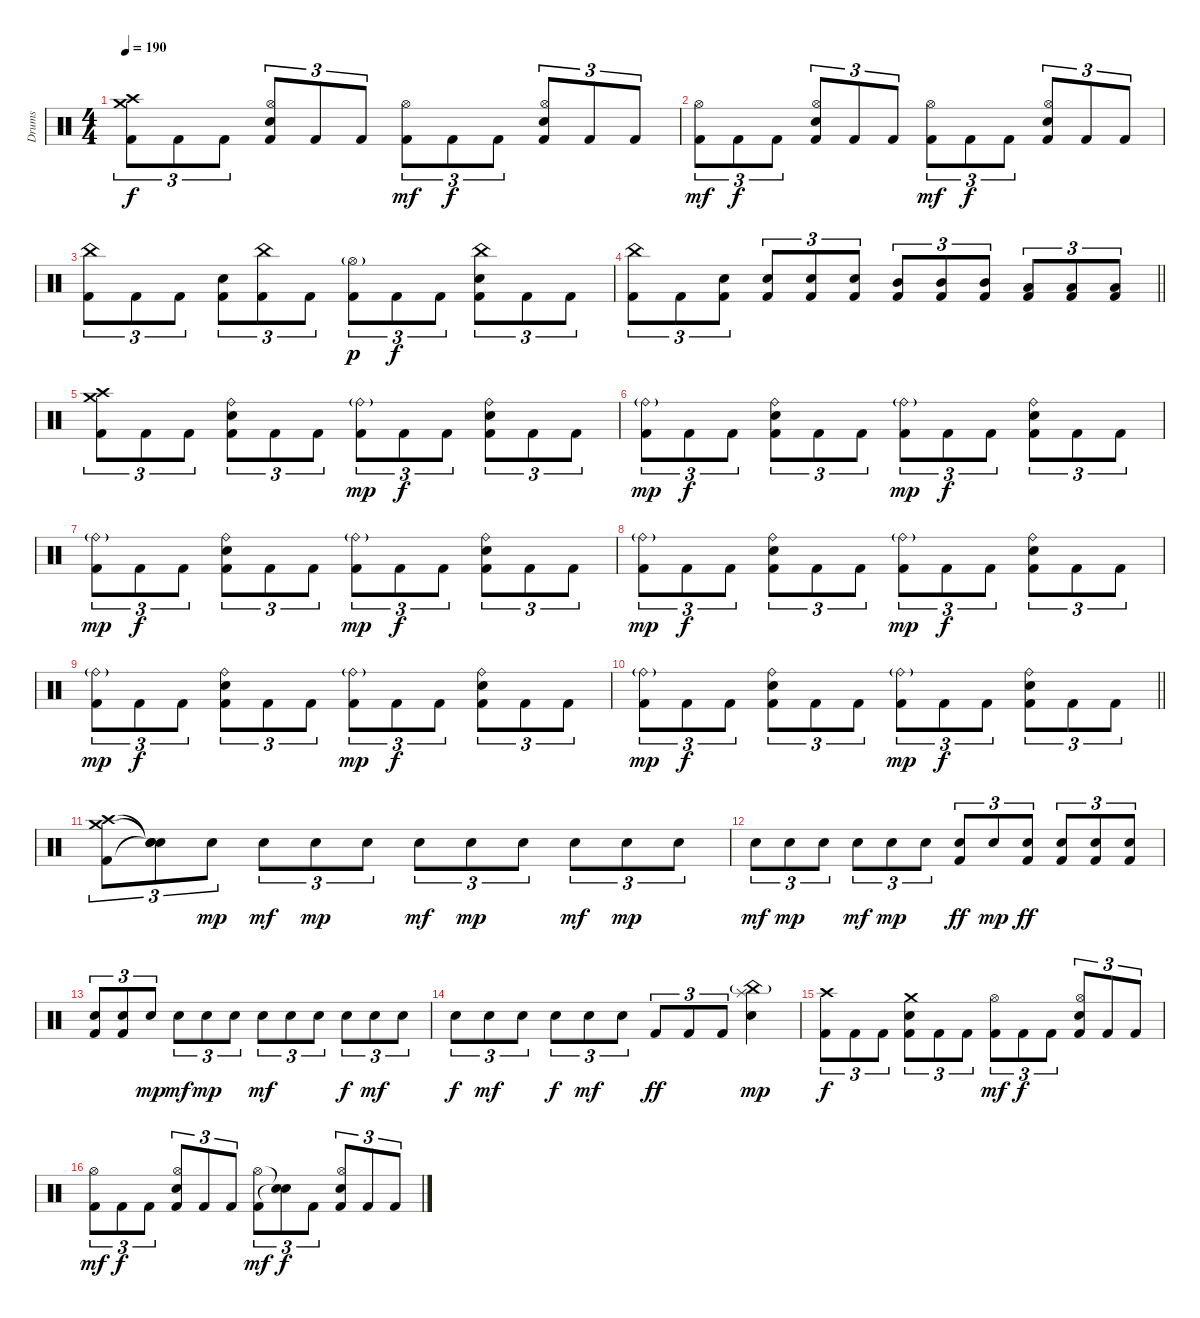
\track ("Drums" "Drums") {instrument percussion}
\staff {score}
\articulation defaults
\ts (4 4)
\tempo 190
\clef neutral
\ks c
("Crash high (hit)" "Crash medium (hit)" "Kick (hit) 2").8{tu (3 2) dy f} "Kick (hit) 2".8{tu (3 2)} "Kick (hit) 2".8{tu (3 2)} ("Hi-Hat (open)" "Electric Snare (hit)" "Kick (hit) 2").8{tu (3 2)} "Kick (hit) 2".8{tu (3 2)} "Kick (hit) 2".8{tu (3 2)} ("Hi-Hat (open)" "Kick (hit) 2").8{tu (3 2) dy mf} "Kick (hit) 2".8{tu (3 2) dy f} "Kick (hit) 2".8{tu (3 2)} ("Hi-Hat (open)" "Electric Snare (hit)" "Kick (hit) 2").8{tu (3 2)} "Kick (hit) 2".8{tu (3 2)} "Kick (hit) 2".8{tu (3 2)} |
("Hi-Hat (open)" "Kick (hit) 2").8{tu (3 2) dy mf} "Kick (hit) 2".8{tu (3 2) dy f} "Kick (hit) 2".8{tu (3 2)} ("Hi-Hat (open)" "Electric Snare (hit)" "Kick (hit) 2").8{tu (3 2)} "Kick (hit) 2".8{tu (3 2)} "Kick (hit) 2".8{tu (3 2)} ("Hi-Hat (open)" "Kick (hit) 2").8{tu (3 2) dy mf} "Kick (hit) 2".8{tu (3 2) dy f} "Kick (hit) 2".8{tu (3 2)} ("Hi-Hat (open)" "Electric Snare (hit)" "Kick (hit) 2").8{tu (3 2)} "Kick (hit) 2".8{tu (3 2)} "Kick (hit) 2".8{tu (3 2)} |
("China (hit)" "Kick (hit) 2").8{tu (3 2)} "Kick (hit) 2".8{tu (3 2)} "Kick (hit) 2".8{tu (3 2)} ("Electric Snare (hit)" "Kick (hit) 2").8{tu (3 2)} ("China (hit)" "Kick (hit) 2").8{tu (3 2)} "Kick (hit) 2".8{tu (3 2)} ("Hi-Hat (open)"{g} "Kick (hit) 2").8{tu (3 2) dy p} "Kick (hit) 2".8{tu (3 2) dy f} "Kick (hit) 2".8{tu (3 2)} ("China (hit)" "Electric Snare (hit)" "Kick (hit) 2").8{tu (3 2)} "Kick (hit) 2".8{tu (3 2)} "Kick (hit) 2".8{tu (3 2)} |
\barLineRight lightlight
("China (hit)" "Kick (hit) 2").8{tu (3 2)} "Kick (hit) 2".8{tu (3 2)} ("Electric Snare (hit)" "Kick (hit) 2").8{tu (3 2)} ("Electric Snare (hit)" "Kick (hit) 2").8{tu (3 2)} ("Electric Snare (hit)" "Kick (hit) 2").8{tu (3 2)} ("Electric Snare (hit)" "Kick (hit) 2").8{tu (3 2)} ("Mid Tom (hit)" "Kick (hit) 2").8{tu (3 2)} ("Mid Tom (hit)" "Kick (hit) 2").8{tu (3 2)} ("Mid Tom (hit)" "Kick (hit) 2").8{tu (3 2)} ("Low Tom (hit)" "Kick (hit) 2").8{tu (3 2)} ("Low Tom (hit)" "Kick (hit) 2").8{tu (3 2)} ("Low Tom (hit)" "Kick (hit) 2").8{tu (3 2)} |
("Crash high (hit)" "Crash medium (hit)" "Kick (hit) 2").8{tu (3 2)} "Kick (hit) 2".8{tu (3 2)} "Kick (hit) 2".8{tu (3 2)} ("Ride (bell)" "Electric Snare (hit)" "Kick (hit) 2").8{tu (3 2)} "Kick (hit) 2".8{tu (3 2)} "Kick (hit) 2".8{tu (3 2)} ("Ride (bell)"{g} "Kick (hit) 2").8{tu (3 2) dy mp} "Kick (hit) 2".8{tu (3 2) dy f} "Kick (hit) 2".8{tu (3 2)} ("Ride (bell)" "Electric Snare (hit)" "Kick (hit) 2").8{tu (3 2)} "Kick (hit) 2".8{tu (3 2)} "Kick (hit) 2".8{tu (3 2)} |
("Ride (bell)"{g} "Kick (hit) 2").8{tu (3 2) dy mp} "Kick (hit) 2".8{tu (3 2) dy f} "Kick (hit) 2".8{tu (3 2)} ("Ride (bell)" "Electric Snare (hit)" "Kick (hit) 2").8{tu (3 2)} "Kick (hit) 2".8{tu (3 2)} "Kick (hit) 2".8{tu (3 2)} ("Ride (bell)"{g} "Kick (hit) 2").8{tu (3 2) dy mp} "Kick (hit) 2".8{tu (3 2) dy f} "Kick (hit) 2".8{tu (3 2)} ("Ride (bell)" "Electric Snare (hit)" "Kick (hit) 2").8{tu (3 2)} "Kick (hit) 2".8{tu (3 2)} "Kick (hit) 2".8{tu (3 2)} |
("Ride (bell)"{g} "Kick (hit) 2").8{tu (3 2) dy mp} "Kick (hit) 2".8{tu (3 2) dy f} "Kick (hit) 2".8{tu (3 2)} ("Ride (bell)" "Electric Snare (hit)" "Kick (hit) 2").8{tu (3 2)} "Kick (hit) 2".8{tu (3 2)} "Kick (hit) 2".8{tu (3 2)} ("Ride (bell)"{g} "Kick (hit) 2").8{tu (3 2) dy mp} "Kick (hit) 2".8{tu (3 2) dy f} "Kick (hit) 2".8{tu (3 2)} ("Ride (bell)" "Electric Snare (hit)" "Kick (hit) 2").8{tu (3 2)} "Kick (hit) 2".8{tu (3 2)} "Kick (hit) 2".8{tu (3 2)} |
("Ride (bell)"{g} "Kick (hit) 2").8{tu (3 2) dy mp} "Kick (hit) 2".8{tu (3 2) dy f} "Kick (hit) 2".8{tu (3 2)} ("Ride (bell)" "Electric Snare (hit)" "Kick (hit) 2").8{tu (3 2)} "Kick (hit) 2".8{tu (3 2)} "Kick (hit) 2".8{tu (3 2)} ("Ride (bell)"{g} "Kick (hit) 2").8{tu (3 2) dy mp} "Kick (hit) 2".8{tu (3 2) dy f} "Kick (hit) 2".8{tu (3 2)} ("Ride (bell)" "Electric Snare (hit)" "Kick (hit) 2").8{tu (3 2)} "Kick (hit) 2".8{tu (3 2)} "Kick (hit) 2".8{tu (3 2)} |
("Ride (bell)"{g} "Kick (hit) 2").8{tu (3 2) dy mp} "Kick (hit) 2".8{tu (3 2) dy f} "Kick (hit) 2".8{tu (3 2)} ("Ride (bell)" "Electric Snare (hit)" "Kick (hit) 2").8{tu (3 2)} "Kick (hit) 2".8{tu (3 2)} "Kick (hit) 2".8{tu (3 2)} ("Ride (bell)"{g} "Kick (hit) 2").8{tu (3 2) dy mp} "Kick (hit) 2".8{tu (3 2) dy f} "Kick (hit) 2".8{tu (3 2)} ("Ride (bell)" "Electric Snare (hit)" "Kick (hit) 2").8{tu (3 2)} "Kick (hit) 2".8{tu (3 2)} "Kick (hit) 2".8{tu (3 2)} |
\barLineRight lightlight
("Ride (bell)"{g} "Kick (hit) 2").8{tu (3 2) dy mp} "Kick (hit) 2".8{tu (3 2) dy f} "Kick (hit) 2".8{tu (3 2)} ("Ride (bell)" "Electric Snare (hit)" "Kick (hit) 2").8{tu (3 2)} "Kick (hit) 2".8{tu (3 2)} "Kick (hit) 2".8{tu (3 2)} ("Ride (bell)"{g} "Kick (hit) 2").8{tu (3 2) dy mp} "Kick (hit) 2".8{tu (3 2) dy f} "Kick (hit) 2".8{tu (3 2)} ("Ride (bell)" "Electric Snare (hit)" "Kick (hit) 2").8{tu (3 2)} "Kick (hit) 2".8{tu (3 2)} "Kick (hit) 2".8{tu (3 2)} |
("Crash high (hit)" "Crash medium (hit)" "Kick (hit) 2").8{tu (3 2)} ("Snare (hit)"{t} "Snare (hit)"{t} "Snare (hit)"{t}).8{tu (3 2)} "Electric Snare (hit)".8{tu (3 2) dy mp} "Electric Snare (hit)".8{tu (3 2) dy mf} "Electric Snare (hit)".8{tu (3 2) dy mp} "Electric Snare (hit)".8{tu (3 2)} "Electric Snare (hit)".8{tu (3 2) dy mf} "Electric Snare (hit)".8{tu (3 2) dy mp} "Electric Snare (hit)".8{tu (3 2)} "Electric Snare (hit)".8{tu (3 2) dy mf} "Electric Snare (hit)".8{tu (3 2) dy mp} "Electric Snare (hit)".8{tu (3 2)} |
"Electric Snare (hit)".8{tu (3 2) dy mf} "Electric Snare (hit)".8{tu (3 2) dy mp} "Electric Snare (hit)".8{tu (3 2)} "Electric Snare (hit)".8{tu (3 2) dy mf} "Electric Snare (hit)".8{tu (3 2) dy mp} "Electric Snare (hit)".8{tu (3 2)} ("Electric Snare (hit)" "Kick (hit) 2").8{tu (3 2) dy ff} "Electric Snare (hit)".8{tu (3 2) dy mp} ("Electric Snare (hit)" "Kick (hit) 2").8{tu (3 2) dy ff} ("Electric Snare (hit)" "Kick (hit) 2").8{tu (3 2)} ("Electric Snare (hit)" "Kick (hit) 2").8{tu (3 2)} ("Electric Snare (hit)" "Kick (hit) 2").8{tu (3 2)} |
("Electric Snare (hit)" "Kick (hit) 2").8{tu (3 2)} ("Electric Snare (hit)" "Kick (hit) 2").8{tu (3 2)} "Electric Snare (hit)".8{tu (3 2) dy mp} "Electric Snare (hit)".8{tu (3 2) dy mf} "Electric Snare (hit)".8{tu (3 2) dy mp} "Electric Snare (hit)".8{tu (3 2)} "Electric Snare (hit)".8{tu (3 2) dy mf} "Electric Snare (hit)".8{tu (3 2)} "Electric Snare (hit)".8{tu (3 2)} "Electric Snare (hit)".8{tu (3 2) dy f} "Electric Snare (hit)".8{tu (3 2) dy mf} "Electric Snare (hit)".8{tu (3 2)} |
"Electric Snare (hit)".8{tu (3 2) dy f} "Electric Snare (hit)".8{tu (3 2) dy mf} "Electric Snare (hit)".8{tu (3 2)} "Electric Snare (hit)".8{tu (3 2) dy f} "Electric Snare (hit)".8{tu (3 2) dy mf} "Electric Snare (hit)".8{tu (3 2)} "Kick (hit) 2".8{tu (3 2) dy ff} "Kick (hit) 2".8{tu (3 2)} "Kick (hit) 2".8{tu (3 2)} ("China (hit)"{g} "Splash (hit)" "Electric Snare (hit)").4{dy mp} |
("Crash high (hit)" "Kick (hit) 2").8{tu (3 2) dy f} "Kick (hit) 2".8{tu (3 2)} "Kick (hit) 2".8{tu (3 2)} ("Crash medium (hit)" "Electric Snare (hit)" "Kick (hit) 2").8{tu (3 2)} "Kick (hit) 2".8{tu (3 2)} "Kick (hit) 2".8{tu (3 2)} ("Hi-Hat (open)" "Kick (hit) 2").8{tu (3 2) dy mf} "Kick (hit) 2".8{tu (3 2) dy f} "Kick (hit) 2".8{tu (3 2)} ("Hi-Hat (open)" "Electric Snare (hit)" "Kick (hit) 2").8{tu (3 2)} "Kick (hit) 2".8{tu (3 2)} "Kick (hit) 2".8{tu (3 2)} |
("Hi-Hat (open)" "Kick (hit) 2").8{tu (3 2) dy mf} "Kick (hit) 2".8{tu (3 2) dy f} "Kick (hit) 2".8{tu (3 2)} ("Hi-Hat (open)" "Electric Snare (hit)" "Kick (hit) 2").8{tu (3 2)} "Kick (hit) 2".8{tu (3 2)} "Kick (hit) 2".8{tu (3 2)} ("Hi-Hat (open)" "Kick (hit) 2").8{tu (3 2) dy mf} ("Snare (hit)"{t} "Snare (hit)"{t}).8{tu (3 2) dy f} "Kick (hit) 2".8{tu (3 2)} ("Hi-Hat (open)" "Electric Snare (hit)" "Kick (hit) 2").8{tu (3 2)} "Kick (hit) 2".8{tu (3 2)} "Kick (hit) 2".8{tu (3 2)}
